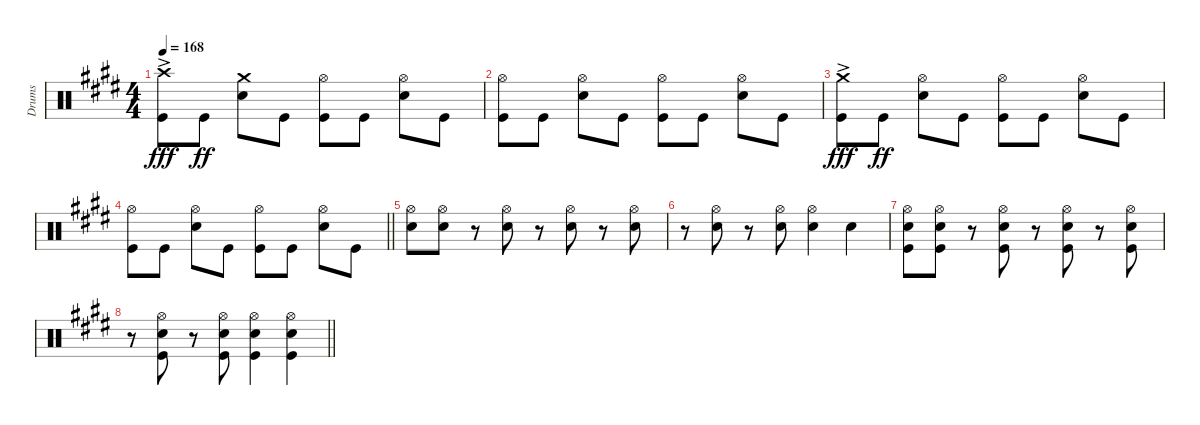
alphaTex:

\track ("Drums" "Drums") {instrument percussion}
\staff {score}
\articulation defaults
\ts (4 4)
\tempo 168
\clef neutral
\ks e
("Kick (hit)" "Crash high (hit)"{ac}).8{dy fff} "Kick (hit)".8{dy ff} ("Snare (hit) 2" "Crash medium (hit)").8 "Kick (hit)".8 ("Kick (hit)" "Hi-Hat (open)").8 "Kick (hit)".8 ("Snare (hit) 2" "Hi-Hat (open)").8 "Kick (hit)".8 |
("Kick (hit)" "Hi-Hat (open)").8 "Kick (hit)".8 ("Snare (hit) 2" "Hi-Hat (open)").8 "Kick (hit)".8 ("Kick (hit)" "Hi-Hat (open)").8 "Kick (hit)".8 ("Snare (hit) 2" "Hi-Hat (open)").8 "Kick (hit)".8 |
("Kick (hit)" "Crash medium (hit)"{ac}).8{dy fff} "Kick (hit)".8{dy ff} ("Snare (hit) 2" "Hi-Hat (open)").8 "Kick (hit)".8 ("Kick (hit)" "Hi-Hat (open)").8 "Kick (hit)".8 ("Snare (hit) 2" "Hi-Hat (open)").8 "Kick (hit)".8 |
\barLineRight lightlight
("Kick (hit)" "Hi-Hat (open)").8 "Kick (hit)".8 ("Snare (hit) 2" "Hi-Hat (open)").8 "Kick (hit)".8 ("Kick (hit)" "Hi-Hat (open)").8 "Kick (hit)".8 ("Snare (hit) 2" "Hi-Hat (open)").8 "Kick (hit)".8 |
("Snare (hit) 2" "Hi-Hat (open)").8 ("Snare (hit) 2" "Hi-Hat (open)").8 r.8 ("Snare (hit) 2" "Hi-Hat (open)").8 r.8 ("Snare (hit) 2" "Hi-Hat (open)").8 r.8 ("Snare (hit) 2" "Hi-Hat (open)").8 |
r.8 ("Snare (hit) 2" "Hi-Hat (open)").8 r.8 ("Snare (hit) 2" "Hi-Hat (open)").8 ("Snare (hit) 2" "Hi-Hat (open)").4 "Snare (hit) 2".4 |
("Kick (hit)" "Snare (hit) 2" "Hi-Hat (open)").8 ("Kick (hit)" "Snare (hit) 2" "Hi-Hat (open)").8 r.8 ("Kick (hit)" "Snare (hit) 2" "Hi-Hat (open)").8 r.8 ("Kick (hit)" "Snare (hit) 2" "Hi-Hat (open)").8 r.8 ("Kick (hit)" "Snare (hit) 2" "Hi-Hat (open)").8 |
\barLineRight lightlight
r.8 ("Kick (hit)" "Snare (hit) 2" "Hi-Hat (open)").8 r.8 ("Kick (hit)" "Snare (hit) 2" "Hi-Hat (open)").8 ("Kick (hit)" "Snare (hit) 2" "Hi-Hat (open)").4 ("Snare (hit) 2" "Kick (hit)" "Hi-Hat (open)").4
